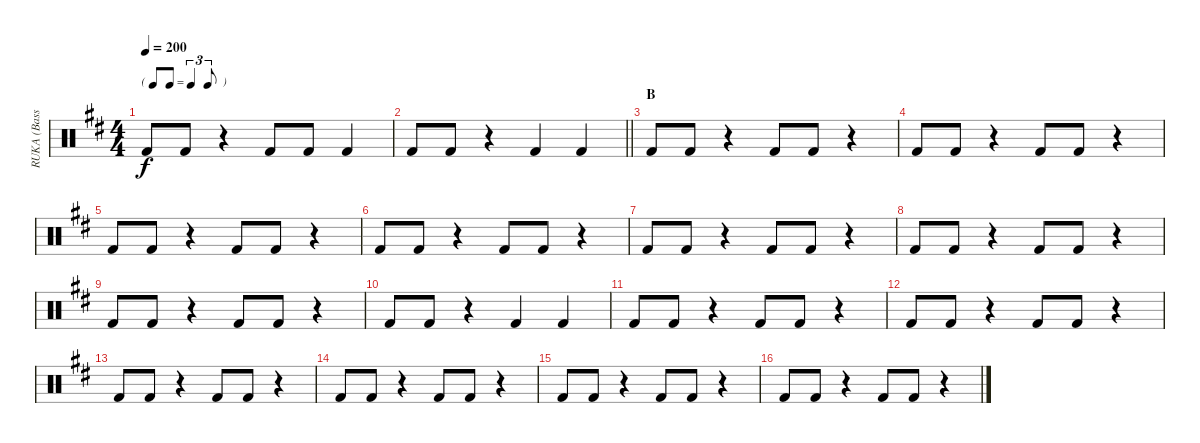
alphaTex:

\track ("RUKA (Bass)" "RUKA (Bass") {instrument percussion}
\staff {score}
\articulation defaults
\ts (4 4)
\tf triplet8th
\tempo 200
\clef neutral
\ks d "Kick (hit) 2".8{dy f} "Kick (hit) 2".8
r.4 "Kick (hit) 2".8 "Kick (hit) 2".8 "Kick (hit) 2".4 |
\barLineRight lightlight "Kick (hit) 2".8 "Kick (hit) 2".8
r.4 "Kick (hit) 2".4 "Kick (hit) 2".4 |
\section ("" "B")
"Kick (hit) 2".8 "Kick (hit) 2".8 r.4 "Kick (hit) 2".8 "Kick (hit) 2".8 r.4 |
"Kick (hit) 2".8 "Kick (hit) 2".8 r.4 "Kick (hit) 2".8 "Kick (hit) 2".8 r.4 |
"Kick (hit) 2".8 "Kick (hit) 2".8 r.4 "Kick (hit) 2".8 "Kick (hit) 2".8 r.4 |
"Kick (hit) 2".8 "Kick (hit) 2".8 r.4 "Kick (hit) 2".8 "Kick (hit) 2".8 r.4 |
"Kick (hit) 2".8 "Kick (hit) 2".8 r.4 "Kick (hit) 2".8 "Kick (hit) 2".8 r.4 |
"Kick (hit) 2".8 "Kick (hit) 2".8 r.4 "Kick (hit) 2".8 "Kick (hit) 2".8 r.4 |
"Kick (hit) 2".8 "Kick (hit) 2".8 r.4 "Kick (hit) 2".8 "Kick (hit) 2".8 r.4 |
"Kick (hit) 2".8 "Kick (hit) 2".8 r.4 "Kick (hit) 2".4 "Kick (hit) 2".4 |
"Kick (hit) 2".8 "Kick (hit) 2".8 r.4 "Kick (hit) 2".8 "Kick (hit) 2".8 r.4 |
"Kick (hit) 2".8 "Kick (hit) 2".8 r.4 "Kick (hit) 2".8 "Kick (hit) 2".8 r.4 |
"Kick (hit) 2".8 "Kick (hit) 2".8 r.4 "Kick (hit) 2".8 "Kick (hit) 2".8 r.4 |
"Kick (hit) 2".8 "Kick (hit) 2".8 r.4 "Kick (hit) 2".8 "Kick (hit) 2".8 r.4 |
"Kick (hit) 2".8 "Kick (hit) 2".8 r.4 "Kick (hit) 2".8 "Kick (hit) 2".8 r.4 |
"Kick (hit) 2".8 "Kick (hit) 2".8 r.4 "Kick (hit) 2".8 "Kick (hit) 2".8 r.4
